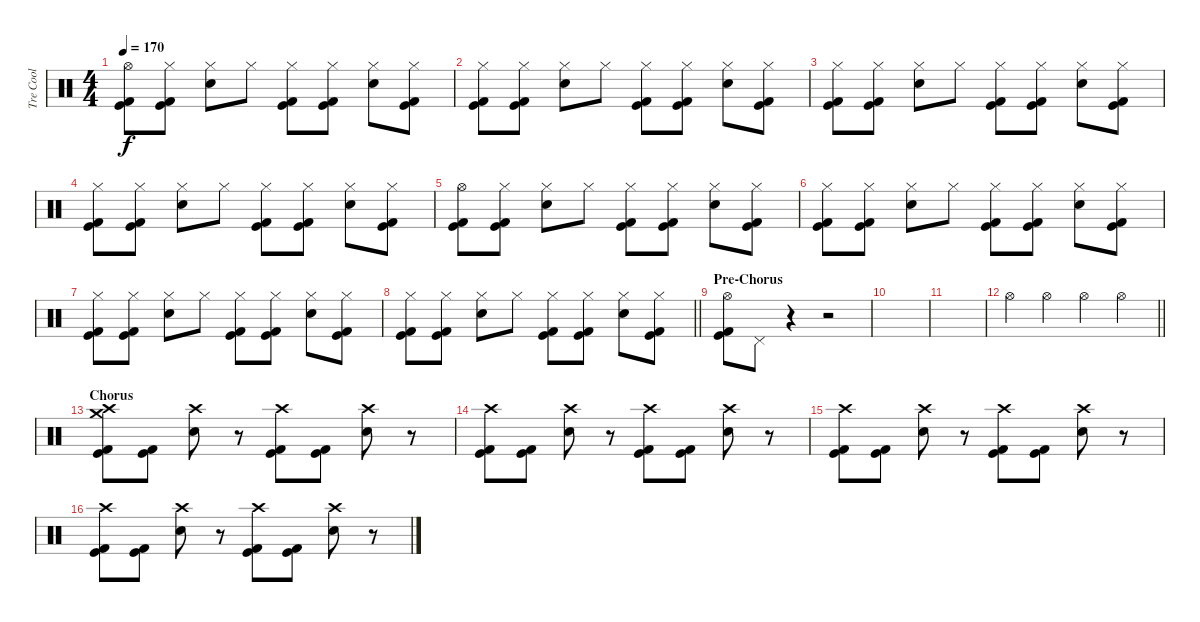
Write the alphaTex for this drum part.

\track ("Tre Cool" "Tre Cool") {instrument percussion}
\staff {score}
\articulation defaults
\ts (4 4)
\tempo 170
\clef neutral
\ks c
("Hi-Hat (open)" "Kick (hit)" "Kick (hit) 2").8{dy f} ("Hi-Hat (closed)" "Kick (hit)" "Kick (hit) 2").8 ("Hi-Hat (closed)" "Electric Snare (hit)").8 "Hi-Hat (closed)".8 ("Hi-Hat (closed)" "Kick (hit)" "Kick (hit) 2").8 ("Hi-Hat (closed)" "Kick (hit)" "Kick (hit) 2").8 ("Hi-Hat (closed)" "Electric Snare (hit)").8 ("Hi-Hat (closed)" "Kick (hit)" "Kick (hit) 2").8 |
("Hi-Hat (closed)" "Kick (hit)" "Kick (hit) 2").8 ("Hi-Hat (closed)" "Kick (hit)" "Kick (hit) 2").8 ("Hi-Hat (closed)" "Electric Snare (hit)").8 "Hi-Hat (closed)".8 ("Hi-Hat (closed)" "Kick (hit)" "Kick (hit) 2").8 ("Hi-Hat (closed)" "Kick (hit)" "Kick (hit) 2").8 ("Hi-Hat (closed)" "Electric Snare (hit)").8 ("Hi-Hat (closed)" "Kick (hit)" "Kick (hit) 2").8 |
("Hi-Hat (closed)" "Kick (hit)" "Kick (hit) 2").8 ("Hi-Hat (closed)" "Kick (hit)" "Kick (hit) 2").8 ("Hi-Hat (closed)" "Electric Snare (hit)").8 "Hi-Hat (closed)".8 ("Hi-Hat (closed)" "Kick (hit)" "Kick (hit) 2").8 ("Hi-Hat (closed)" "Kick (hit)" "Kick (hit) 2").8 ("Hi-Hat (closed)" "Electric Snare (hit)").8 ("Hi-Hat (closed)" "Kick (hit)" "Kick (hit) 2").8 |
("Hi-Hat (closed)" "Kick (hit)" "Kick (hit) 2").8 ("Hi-Hat (closed)" "Kick (hit)" "Kick (hit) 2").8 ("Hi-Hat (closed)" "Electric Snare (hit)").8 "Hi-Hat (closed)".8 ("Hi-Hat (closed)" "Kick (hit)" "Kick (hit) 2").8 ("Hi-Hat (closed)" "Kick (hit)" "Kick (hit) 2").8 ("Hi-Hat (closed)" "Electric Snare (hit)").8 ("Hi-Hat (closed)" "Kick (hit)" "Kick (hit) 2").8 |
("Hi-Hat (open)" "Kick (hit)" "Kick (hit) 2").8 ("Hi-Hat (closed)" "Kick (hit)" "Kick (hit) 2").8 ("Hi-Hat (closed)" "Electric Snare (hit)").8 "Hi-Hat (closed)".8 ("Hi-Hat (closed)" "Kick (hit)" "Kick (hit) 2").8 ("Hi-Hat (closed)" "Kick (hit)" "Kick (hit) 2").8 ("Hi-Hat (closed)" "Electric Snare (hit)").8 ("Hi-Hat (closed)" "Kick (hit)" "Kick (hit) 2").8 |
("Hi-Hat (closed)" "Kick (hit)" "Kick (hit) 2").8 ("Hi-Hat (closed)" "Kick (hit)" "Kick (hit) 2").8 ("Hi-Hat (closed)" "Electric Snare (hit)").8 "Hi-Hat (closed)".8 ("Hi-Hat (closed)" "Kick (hit)" "Kick (hit) 2").8 ("Hi-Hat (closed)" "Kick (hit)" "Kick (hit) 2").8 ("Hi-Hat (closed)" "Electric Snare (hit)").8 ("Hi-Hat (closed)" "Kick (hit)" "Kick (hit) 2").8 |
("Hi-Hat (closed)" "Kick (hit)" "Kick (hit) 2").8 ("Hi-Hat (closed)" "Kick (hit)" "Kick (hit) 2").8 ("Hi-Hat (closed)" "Electric Snare (hit)").8 "Hi-Hat (closed)".8 ("Hi-Hat (closed)" "Kick (hit)" "Kick (hit) 2").8 ("Hi-Hat (closed)" "Kick (hit)" "Kick (hit) 2").8 ("Hi-Hat (closed)" "Electric Snare (hit)").8 ("Hi-Hat (closed)" "Kick (hit)" "Kick (hit) 2").8 |
\barLineRight lightlight
("Hi-Hat (closed)" "Kick (hit)" "Kick (hit) 2").8 ("Hi-Hat (closed)" "Kick (hit)" "Kick (hit) 2").8 ("Hi-Hat (closed)" "Electric Snare (hit)").8 "Hi-Hat (closed)".8 ("Hi-Hat (closed)" "Kick (hit)" "Kick (hit) 2").8 ("Hi-Hat (closed)" "Kick (hit)" "Kick (hit) 2").8 ("Hi-Hat (closed)" "Electric Snare (hit)").8 ("Hi-Hat (closed)" "Kick (hit)" "Kick (hit) 2").8 |
\section ("" "Pre-Chorus")
("Hi-Hat (open)" "Kick (hit)" "Kick (hit) 2").8 "Pedal Hi-Hat (hit)".8 r.4 r.2 |
|
|
\barLineRight lightlight "Hi-Hat (open)".4 "Hi-Hat (open)".4 "Hi-Hat (open)".4 "Hi-Hat (open)".4
|
\section ("" "Chorus")
("Crash high (hit)" "Crash medium (hit)" "Kick (hit)" "Kick (hit) 2").8 ("Kick (hit)" "Kick (hit) 2").8 ("Crash high (hit)" "Electric Snare (hit)").8 r.8 ("Crash high (hit)" "Kick (hit)" "Kick (hit) 2").8 ("Kick (hit)" "Kick (hit) 2").8 ("Crash high (hit)" "Electric Snare (hit)").8 r.8 |
("Crash high (hit)" "Kick (hit)" "Kick (hit) 2").8 ("Kick (hit)" "Kick (hit) 2").8 ("Crash high (hit)" "Electric Snare (hit)").8 r.8 ("Crash high (hit)" "Kick (hit)" "Kick (hit) 2").8 ("Kick (hit)" "Kick (hit) 2").8 ("Crash high (hit)" "Electric Snare (hit)").8 r.8 |
("Crash high (hit)" "Kick (hit)" "Kick (hit) 2").8 ("Kick (hit)" "Kick (hit) 2").8 ("Crash high (hit)" "Electric Snare (hit)").8 r.8 ("Crash high (hit)" "Kick (hit)" "Kick (hit) 2").8 ("Kick (hit)" "Kick (hit) 2").8 ("Crash high (hit)" "Electric Snare (hit)").8 r.8 |
("Crash high (hit)" "Kick (hit)" "Kick (hit) 2").8 ("Kick (hit)" "Kick (hit) 2").8 ("Crash high (hit)" "Electric Snare (hit)").8 r.8 ("Crash high (hit)" "Kick (hit)" "Kick (hit) 2").8 ("Kick (hit)" "Kick (hit) 2").8 ("Crash high (hit)" "Electric Snare (hit)").8 r.8
